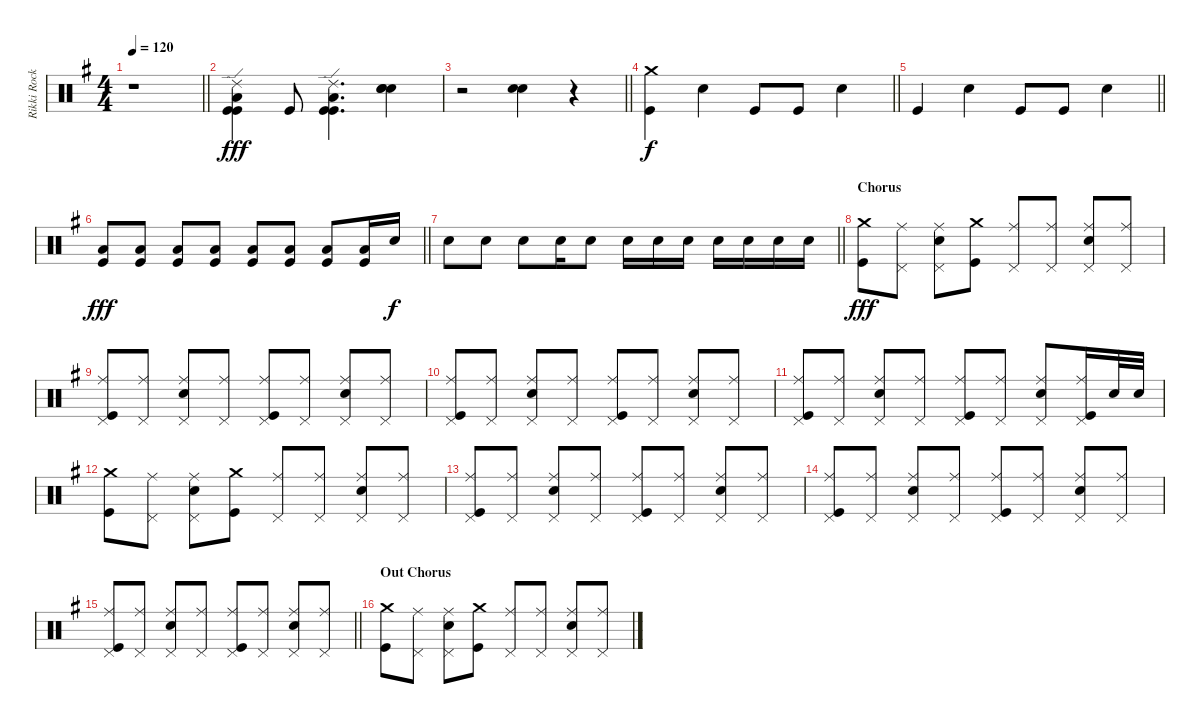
\track ("Rikki Rocket: Drums" "Rikki Rock") {instrument percussion}
\staff {score}
\articulation defaults
\ts (4 4)
\tempo 120
\clef neutral
\barLineRight lightlight
\ks g
r.1{dy fff} |
("Ride (edge) 2" "Kick (hit)" "Kick (hit)" "Low Floor Tom (hit)").4 "Kick (hit)".8 ("Ride (edge) 2" "Kick (hit)" "Kick (hit)" "Low Floor Tom (hit)").4{d} ("Electric Snare (hit)" "Electric Snare (hit)" "Electric Snare (hit)").4 |
\barLineRight lightlight
r.2 ("Electric Snare (hit)" "Electric Snare (hit)").4 r.4 |
\barLineRight lightlight
("Crash medium (hit)" "Kick (hit)").4{dy f} "Electric Snare (hit)".4 "Kick (hit)".8 "Kick (hit)".8 "Electric Snare (hit)".4 |
\barLineRight lightlight "Kick (hit)".4 "Electric Snare (hit)".4 "Kick (hit)".8 "Kick (hit)".8 "Electric Snare (hit)".4
|
\barLineRight lightlight
("Low Floor Tom (hit)" "Kick (hit)").8{dy fff} ("Low Floor Tom (hit)" "Kick (hit)").8 ("Low Floor Tom (hit)" "Kick (hit)").8 ("Low Floor Tom (hit)" "Kick (hit)").8 ("Low Floor Tom (hit)" "Kick (hit)").8 ("Low Floor Tom (hit)" "Kick (hit)").8 ("Low Floor Tom (hit)" "Kick (hit)").8 ("Low Floor Tom (hit)" "Kick (hit)").16 "Electric Snare (hit)".16{dy f} |
\barLineRight lightlight "Electric Snare (hit)".8 "Electric Snare (hit)".8 "Electric Snare (hit)".8 "Electric Snare (hit)".16 "Electric Snare (hit)".8 "Electric Snare (hit)".16 "Electric Snare (hit)".16 "Electric Snare (hit)".16 "Electric Snare (hit)".16 "Electric Snare (hit)".16 "Electric Snare (hit)".16 "Electric Snare (hit)".16
|
\section ("" "Chorus")
("Crash medium (hit)" "Kick (hit)").8{dy fff} ("Ride (middle)" "Pedal Hi-Hat (hit)").8 ("Ride (middle)" "Pedal Hi-Hat (hit)" "Electric Snare (hit)").8 ("Crash medium (hit)" "Kick (hit)").8 ("Ride (middle)" "Pedal Hi-Hat (hit)").8 ("Ride (middle)" "Pedal Hi-Hat (hit)").8 ("Ride (middle)" "Pedal Hi-Hat (hit)" "Electric Snare (hit)").8 ("Ride (middle)" "Pedal Hi-Hat (hit)").8 |
("Ride (middle)" "Pedal Hi-Hat (hit)" "Kick (hit)").8 ("Ride (middle)" "Pedal Hi-Hat (hit)").8 ("Ride (middle)" "Pedal Hi-Hat (hit)" "Electric Snare (hit)").8 ("Ride (middle)" "Pedal Hi-Hat (hit)").8 ("Ride (middle)" "Pedal Hi-Hat (hit)" "Kick (hit)").8 ("Ride (middle)" "Pedal Hi-Hat (hit)").8 ("Ride (middle)" "Pedal Hi-Hat (hit)" "Electric Snare (hit)").8 ("Ride (middle)" "Pedal Hi-Hat (hit)").8 |
("Ride (middle)" "Pedal Hi-Hat (hit)" "Kick (hit)").8 ("Ride (middle)" "Pedal Hi-Hat (hit)").8 ("Ride (middle)" "Pedal Hi-Hat (hit)" "Electric Snare (hit)").8 ("Ride (middle)" "Pedal Hi-Hat (hit)").8 ("Ride (middle)" "Pedal Hi-Hat (hit)" "Kick (hit)").8 ("Ride (middle)" "Pedal Hi-Hat (hit)").8 ("Ride (middle)" "Pedal Hi-Hat (hit)" "Electric Snare (hit)").8 ("Ride (middle)" "Pedal Hi-Hat (hit)").8 |
("Ride (middle)" "Pedal Hi-Hat (hit)" "Kick (hit)").8 ("Ride (middle)" "Pedal Hi-Hat (hit)").8 ("Ride (middle)" "Pedal Hi-Hat (hit)" "Electric Snare (hit)").8 ("Ride (middle)" "Pedal Hi-Hat (hit)").8 ("Ride (middle)" "Pedal Hi-Hat (hit)" "Kick (hit)").8 ("Ride (middle)" "Pedal Hi-Hat (hit)").8 ("Ride (middle)" "Pedal Hi-Hat (hit)" "Electric Snare (hit)").8 ("Ride (middle)" "Pedal Hi-Hat (hit)" "Kick (hit)").16 "Electric Snare (hit)".32 "Electric Snare (hit)".32 |
("Crash medium (hit)" "Kick (hit)").8 ("Ride (middle)" "Pedal Hi-Hat (hit)").8 ("Ride (middle)" "Pedal Hi-Hat (hit)" "Electric Snare (hit)").8 ("Crash medium (hit)" "Kick (hit)").8 ("Ride (middle)" "Pedal Hi-Hat (hit)").8 ("Ride (middle)" "Pedal Hi-Hat (hit)").8 ("Ride (middle)" "Pedal Hi-Hat (hit)" "Electric Snare (hit)").8 ("Ride (middle)" "Pedal Hi-Hat (hit)").8 |
("Ride (middle)" "Pedal Hi-Hat (hit)" "Kick (hit)").8 ("Ride (middle)" "Pedal Hi-Hat (hit)").8 ("Ride (middle)" "Pedal Hi-Hat (hit)" "Electric Snare (hit)").8 ("Ride (middle)" "Pedal Hi-Hat (hit)").8 ("Ride (middle)" "Pedal Hi-Hat (hit)" "Kick (hit)").8 ("Ride (middle)" "Pedal Hi-Hat (hit)").8 ("Ride (middle)" "Pedal Hi-Hat (hit)" "Electric Snare (hit)").8 ("Ride (middle)" "Pedal Hi-Hat (hit)").8 |
("Ride (middle)" "Pedal Hi-Hat (hit)" "Kick (hit)").8 ("Ride (middle)" "Pedal Hi-Hat (hit)").8 ("Ride (middle)" "Pedal Hi-Hat (hit)" "Electric Snare (hit)").8 ("Ride (middle)" "Pedal Hi-Hat (hit)").8 ("Ride (middle)" "Pedal Hi-Hat (hit)" "Kick (hit)").8 ("Ride (middle)" "Pedal Hi-Hat (hit)").8 ("Ride (middle)" "Pedal Hi-Hat (hit)" "Electric Snare (hit)").8 ("Ride (middle)" "Pedal Hi-Hat (hit)").8 |
\barLineRight lightlight
("Ride (middle)" "Pedal Hi-Hat (hit)" "Kick (hit)").8 ("Ride (middle)" "Pedal Hi-Hat (hit)").8 ("Ride (middle)" "Pedal Hi-Hat (hit)" "Electric Snare (hit)").8 ("Ride (middle)" "Pedal Hi-Hat (hit)").8 ("Ride (middle)" "Pedal Hi-Hat (hit)" "Kick (hit)").8 ("Ride (middle)" "Pedal Hi-Hat (hit)").8 ("Ride (middle)" "Pedal Hi-Hat (hit)" "Electric Snare (hit)").8 ("Ride (middle)" "Pedal Hi-Hat (hit)").8 |
\section ("" "Out Chorus")
("Crash medium (hit)" "Kick (hit)").8 ("Ride (middle)" "Pedal Hi-Hat (hit)").8 ("Ride (middle)" "Pedal Hi-Hat (hit)" "Electric Snare (hit)").8 ("Crash medium (hit)" "Kick (hit)").8 ("Ride (middle)" "Pedal Hi-Hat (hit)").8 ("Ride (middle)" "Pedal Hi-Hat (hit)").8 ("Ride (middle)" "Pedal Hi-Hat (hit)" "Electric Snare (hit)").8 ("Ride (middle)" "Pedal Hi-Hat (hit)").8
